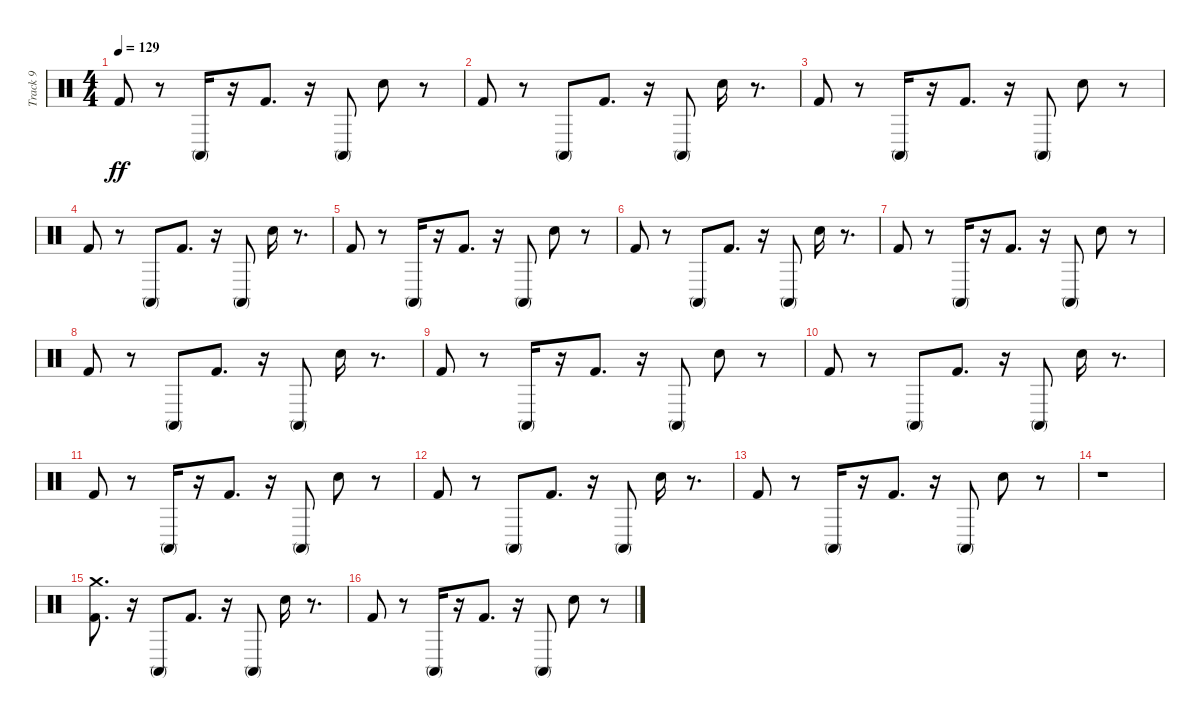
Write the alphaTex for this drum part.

\track ("Track 9" "Track 9") {instrument percussion}
\staff {score}
\articulation defaults
\ts (4 4)
\tempo 129
\clef neutral
\ks c "Kick (hit) 2".8{dy ff}
r.8 "Conga high (mute)".16 r.16 "Kick (hit) 2".8{d} r.16 "Conga high (mute)".8 "Snare (hit) 2".8 r.8 |
"Kick (hit) 2".8 r.8 "Conga high (mute)".8 "Kick (hit) 2".8{d} r.16 "Conga high (mute)".8 "Snare (hit) 2".16 r.8{d} |
"Kick (hit) 2".8 r.8 "Conga high (mute)".16 r.16 "Kick (hit) 2".8{d} r.16 "Conga high (mute)".8 "Snare (hit) 2".8 r.8 |
"Kick (hit) 2".8 r.8 "Conga high (mute)".8 "Kick (hit) 2".8{d} r.16 "Conga high (mute)".8 "Snare (hit) 2".16 r.8{d} |
"Kick (hit) 2".8 r.8 "Conga high (mute)".16 r.16 "Kick (hit) 2".8{d} r.16 "Conga high (mute)".8 "Snare (hit) 2".8 r.8 |
"Kick (hit) 2".8 r.8 "Conga high (mute)".8 "Kick (hit) 2".8{d} r.16 "Conga high (mute)".8 "Snare (hit) 2".16 r.8{d} |
"Kick (hit) 2".8 r.8 "Conga high (mute)".16 r.16 "Kick (hit) 2".8{d} r.16 "Conga high (mute)".8 "Snare (hit) 2".8 r.8 |
"Kick (hit) 2".8 r.8 "Conga high (mute)".8 "Kick (hit) 2".8{d} r.16 "Conga high (mute)".8 "Snare (hit) 2".16 r.8{d} |
"Kick (hit) 2".8 r.8 "Conga high (mute)".16 r.16 "Kick (hit) 2".8{d} r.16 "Conga high (mute)".8 "Snare (hit) 2".8 r.8 |
"Kick (hit) 2".8 r.8 "Conga high (mute)".8 "Kick (hit) 2".8{d} r.16 "Conga high (mute)".8 "Snare (hit) 2".16 r.8{d} |
"Kick (hit) 2".8 r.8 "Conga high (mute)".16 r.16 "Kick (hit) 2".8{d} r.16 "Conga high (mute)".8 "Snare (hit) 2".8 r.8 |
"Kick (hit) 2".8 r.8 "Conga high (mute)".8 "Kick (hit) 2".8{d} r.16 "Conga high (mute)".8 "Snare (hit) 2".16 r.8{d} |
"Kick (hit) 2".8 r.8 "Conga high (mute)".16 r.16 "Kick (hit) 2".8{d} r.16 "Conga high (mute)".8 "Snare (hit) 2".8 r.8 |
r.1 |
("Crash medium (hit)" "Kick (hit) 2").8{d} r.16 "Conga high (mute)".8 "Kick (hit) 2".8{d} r.16 "Conga high (mute)".8 "Snare (hit) 2".16 r.8{d} |
"Kick (hit) 2".8 r.8 "Conga high (mute)".16 r.16 "Kick (hit) 2".8{d} r.16 "Conga high (mute)".8 "Snare (hit) 2".8 r.8
